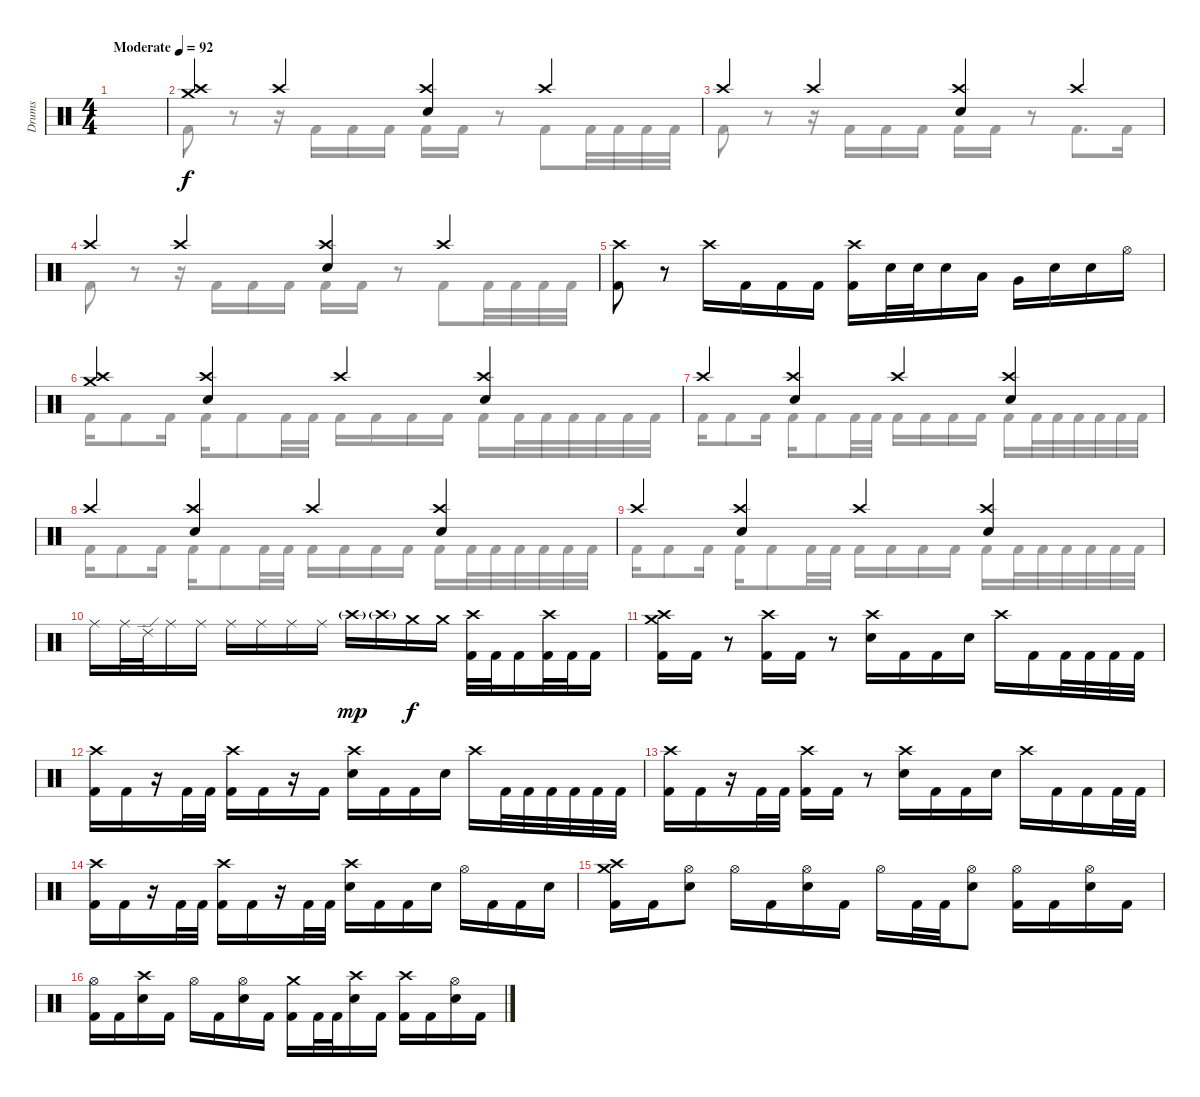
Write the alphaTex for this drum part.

\track ("Drums" "Drums") {instrument percussion}
\staff {score}
\articulation defaults
\voice
\ts (4 4)
\tempo (92 "Moderate")
\clef neutral
\ks c
|
("Crash high (hit)" "Crash medium (hit)").4 "Crash high (hit)".4 ("Crash high (hit)" "Electric Snare (hit)").4 "Crash high (hit)".4 |
"Crash high (hit)".4 "Crash high (hit)".4 ("Crash high (hit)" "Electric Snare (hit)").4 "Crash high (hit)".4 |
"Crash high (hit)".4 "Crash high (hit)".4 ("Crash high (hit)" "Electric Snare (hit)").4 "Crash high (hit)".4 |
("Crash high (hit)" "Kick (hit) 2").8 r.8 "Crash high (hit)".16 "Kick (hit) 2".16 "Kick (hit) 2".16 "Kick (hit) 2".16 ("Crash high (hit)" "Kick (hit) 2").16 "Electric Snare (hit)".32 "Electric Snare (hit)".32 "Electric Snare (hit)".16 "Low Tom (hit)".16 "Very Low Tom (hit)".16 "Electric Snare (hit)".16 "Electric Snare (hit)".16 "Hi-Hat (open)".16 |
("Crash high (hit)" "Crash medium (hit)").4 ("Crash high (hit)" "Electric Snare (hit)").4 "Crash high (hit)".4 ("Crash high (hit)" "Electric Snare (hit)").4 |
"Crash high (hit)".4 ("Crash high (hit)" "Electric Snare (hit)").4 "Crash high (hit)".4 ("Crash high (hit)" "Electric Snare (hit)").4 |
"Crash high (hit)".4 ("Crash high (hit)" "Electric Snare (hit)").4 "Crash high (hit)".4 ("Crash high (hit)" "Electric Snare (hit)").4 |
"Crash high (hit)".4 ("Crash high (hit)" "Electric Snare (hit)").4 "Crash high (hit)".4 ("Crash high (hit)" "Electric Snare (hit)").4 |
"Ride (middle)".16 "Ride (middle)".32 "Ride (edge) 2".32 "Ride (middle)".16 "Ride (middle)".16 "Ride (middle)".16 "Ride (middle)".16 "Ride (middle)".16 "Ride (middle)".16 "Crash high (hit)"{g}.16{dy mp} "Crash high (hit)"{g}.16 "Crash medium (hit)".16{dy f} "Crash medium (hit)".16 ("Crash high (hit)" "Kick (hit) 2").32 "Kick (hit) 2".32 "Kick (hit) 2".16 ("Crash high (hit)" "Kick (hit) 2").32 "Kick (hit) 2".32 "Kick (hit) 2".16 |
("Crash high (hit)" "Crash medium (hit)" "Kick (hit) 2").16 "Kick (hit) 2".16 r.8 ("Crash high (hit)" "Kick (hit) 2").16 "Kick (hit) 2".16 r.8 ("Crash high (hit)" "Electric Snare (hit)").16 "Kick (hit) 2".16 "Kick (hit) 2".16 "Electric Snare (hit)".16 "Crash high (hit)".16 "Kick (hit) 2".16 "Kick (hit) 2".32 "Kick (hit) 2".32 "Kick (hit) 2".32 "Kick (hit) 2".32 |
("Crash high (hit)" "Kick (hit) 2").16 "Kick (hit) 2".16 r.16 "Kick (hit) 2".32 "Kick (hit) 2".32 ("Crash high (hit)" "Kick (hit) 2").16 "Kick (hit) 2".16 r.16 "Kick (hit) 2".16 ("Crash high (hit)" "Electric Snare (hit)").16 "Kick (hit) 2".16 "Kick (hit) 2".16 "Electric Snare (hit)".16 "Crash high (hit)".16 "Kick (hit) 2".32 "Kick (hit) 2".32 "Kick (hit) 2".32 "Kick (hit) 2".32 "Kick (hit) 2".32 "Kick (hit) 2".32 |
("Crash high (hit)" "Kick (hit) 2").16 "Kick (hit) 2".16 r.16 "Kick (hit) 2".32 "Kick (hit) 2".32 ("Crash high (hit)" "Kick (hit) 2").16 "Kick (hit) 2".16 r.8 ("Crash high (hit)" "Electric Snare (hit)").16 "Kick (hit) 2".16 "Kick (hit) 2".16 "Electric Snare (hit)".16 "Crash high (hit)".16 "Kick (hit) 2".16 "Kick (hit) 2".16 "Kick (hit) 2".32 "Kick (hit) 2".32 |
("Crash high (hit)" "Kick (hit) 2").16 "Kick (hit) 2".16 r.16 "Kick (hit) 2".32 "Kick (hit) 2".32 ("Crash high (hit)" "Kick (hit) 2").16 "Kick (hit) 2".16 r.16 "Kick (hit) 2".32 "Kick (hit) 2".32 ("Crash high (hit)" "Electric Snare (hit)").16 "Kick (hit) 2".16 "Kick (hit) 2".16 "Electric Snare (hit)".16 "Hi-Hat (open)".16 "Kick (hit) 2".16 "Kick (hit) 2".16 "Electric Snare (hit)".16 |
("Crash high (hit)" "Crash medium (hit)" "Kick (hit) 2").16 "Kick (hit) 2".16 ("Hi-Hat (open)" "Electric Snare (hit)").8 "Hi-Hat (open)".16 "Kick (hit) 2".16 ("Hi-Hat (open)" "Electric Snare (hit)").16 "Kick (hit) 2".16 "Hi-Hat (open)".16 "Kick (hit) 2".32 "Kick (hit) 2".32 ("Hi-Hat (open)" "Electric Snare (hit)").8 ("Hi-Hat (open)" "Kick (hit) 2").16 "Kick (hit) 2".16 ("Hi-Hat (open)" "Electric Snare (hit)").16 "Kick (hit) 2".16 |
("Hi-Hat (open)" "Kick (hit) 2").16 "Kick (hit) 2".16 ("Crash high (hit)" "Electric Snare (hit)").16 "Kick (hit) 2".16 "Hi-Hat (open)".16 "Kick (hit) 2".16 ("Hi-Hat (open)" "Electric Snare (hit)").16 "Kick (hit) 2".16 ("Crash medium (hit)" "Kick (hit) 2").16 "Kick (hit) 2".32 "Kick (hit) 2".32 ("Crash high (hit)" "Electric Snare (hit)").16 "Kick (hit) 2".16 ("Crash high (hit)" "Kick (hit) 2").16 "Kick (hit) 2".16 ("Hi-Hat (open)" "Electric Snare (hit)").16 "Kick (hit) 2".16
\voice
\clef neutral
\ottava regular
\simile none
\ks c
|
"Kick (hit) 2".8 r.8 r.16 "Kick (hit) 2".16 "Kick (hit) 2".16 "Kick (hit) 2".16 "Kick (hit) 2".16 "Kick (hit) 2".16 r.8 "Kick (hit) 2".8 "Kick (hit) 2".32 "Kick (hit) 2".32 "Kick (hit) 2".32 "Kick (hit) 2".32 |
"Kick (hit) 2".8 r.8 r.16 "Kick (hit) 2".16 "Kick (hit) 2".16 "Kick (hit) 2".16 "Kick (hit) 2".16 "Kick (hit) 2".16 r.8 "Kick (hit) 2".8{d} "Kick (hit) 2".16 |
"Kick (hit) 2".8 r.8 r.16 "Kick (hit) 2".16 "Kick (hit) 2".16 "Kick (hit) 2".16 "Kick (hit) 2".16 "Kick (hit) 2".16 r.8 "Kick (hit) 2".8 "Kick (hit) 2".32 "Kick (hit) 2".32 "Kick (hit) 2".32 "Kick (hit) 2".32 |
|
"Kick (hit) 2".16 "Kick (hit) 2".8 "Kick (hit) 2".16 "Kick (hit) 2".16 "Kick (hit) 2".8 "Kick (hit) 2".32 "Kick (hit) 2".32 "Kick (hit) 2".16 "Kick (hit) 2".16 "Kick (hit) 2".16 "Kick (hit) 2".16 "Kick (hit) 2".16 "Kick (hit) 2".32 "Kick (hit) 2".32 "Kick (hit) 2".32 "Kick (hit) 2".32 "Kick (hit) 2".32 "Kick (hit) 2".32 |
"Kick (hit) 2".16 "Kick (hit) 2".8 "Kick (hit) 2".16 "Kick (hit) 2".16 "Kick (hit) 2".8 "Kick (hit) 2".32 "Kick (hit) 2".32 "Kick (hit) 2".16 "Kick (hit) 2".16 "Kick (hit) 2".16 "Kick (hit) 2".16 "Kick (hit) 2".16 "Kick (hit) 2".32 "Kick (hit) 2".32 "Kick (hit) 2".32 "Kick (hit) 2".32 "Kick (hit) 2".32 "Kick (hit) 2".32 |
"Kick (hit) 2".16 "Kick (hit) 2".8 "Kick (hit) 2".16 "Kick (hit) 2".16 "Kick (hit) 2".8 "Kick (hit) 2".32 "Kick (hit) 2".32 "Kick (hit) 2".16 "Kick (hit) 2".16 "Kick (hit) 2".16 "Kick (hit) 2".16 "Kick (hit) 2".16 "Kick (hit) 2".32 "Kick (hit) 2".32 "Kick (hit) 2".32 "Kick (hit) 2".32 "Kick (hit) 2".32 "Kick (hit) 2".32 |
"Kick (hit) 2".16 "Kick (hit) 2".8 "Kick (hit) 2".16 "Kick (hit) 2".16 "Kick (hit) 2".8 "Kick (hit) 2".32 "Kick (hit) 2".32 "Kick (hit) 2".16 "Kick (hit) 2".16 "Kick (hit) 2".16 "Kick (hit) 2".16 "Kick (hit) 2".16 "Kick (hit) 2".32 "Kick (hit) 2".32 "Kick (hit) 2".32 "Kick (hit) 2".32 "Kick (hit) 2".32 "Kick (hit) 2".32 |
|
|
|
|
|
|
